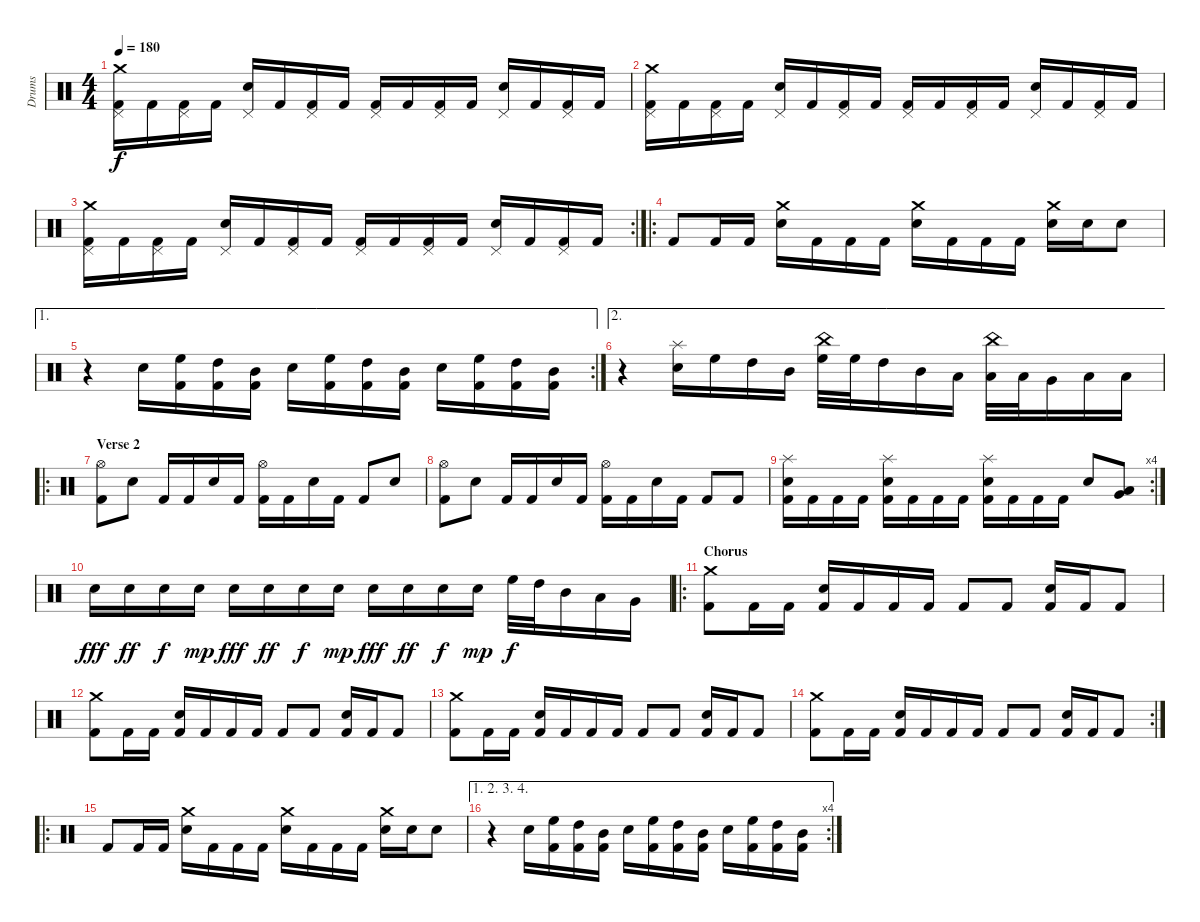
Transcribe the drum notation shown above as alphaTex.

\track ("Drums" "Drums") {instrument percussion}
\staff {score}
\articulation defaults
\ts (4 4)
\tempo 180
\clef neutral
\ks c
("Crash medium (hit)" "Pedal Hi-Hat (hit)" "Kick (hit) 2").16{dy f} "Kick (hit) 2".16 ("Pedal Hi-Hat (hit)" "Kick (hit) 2").16 "Kick (hit) 2".16 ("Pedal Hi-Hat (hit)" "Electric Snare (hit)").16 "Kick (hit) 2".16 ("Pedal Hi-Hat (hit)" "Kick (hit) 2").16 "Kick (hit) 2".16 ("Pedal Hi-Hat (hit)" "Kick (hit) 2").16 "Kick (hit) 2".16 ("Pedal Hi-Hat (hit)" "Kick (hit) 2").16 "Kick (hit) 2".16 ("Pedal Hi-Hat (hit)" "Electric Snare (hit)").16 "Kick (hit) 2".16 ("Pedal Hi-Hat (hit)" "Kick (hit) 2").16 "Kick (hit) 2".16 |
("Crash medium (hit)" "Pedal Hi-Hat (hit)" "Kick (hit) 2").16 "Kick (hit) 2".16 ("Pedal Hi-Hat (hit)" "Kick (hit) 2").16 "Kick (hit) 2".16 ("Pedal Hi-Hat (hit)" "Electric Snare (hit)").16 "Kick (hit) 2".16 ("Pedal Hi-Hat (hit)" "Kick (hit) 2").16 "Kick (hit) 2".16 ("Pedal Hi-Hat (hit)" "Kick (hit) 2").16 "Kick (hit) 2".16 ("Pedal Hi-Hat (hit)" "Kick (hit) 2").16 "Kick (hit) 2".16 ("Pedal Hi-Hat (hit)" "Electric Snare (hit)").16 "Kick (hit) 2".16 ("Pedal Hi-Hat (hit)" "Kick (hit) 2").16 "Kick (hit) 2".16 |
\rc 2
("Crash medium (hit)" "Pedal Hi-Hat (hit)" "Kick (hit) 2").16 "Kick (hit) 2".16 ("Pedal Hi-Hat (hit)" "Kick (hit) 2").16 "Kick (hit) 2".16 ("Pedal Hi-Hat (hit)" "Electric Snare (hit)").16 "Kick (hit) 2".16 ("Pedal Hi-Hat (hit)" "Kick (hit) 2").16 "Kick (hit) 2".16 ("Pedal Hi-Hat (hit)" "Kick (hit) 2").16 "Kick (hit) 2".16 ("Pedal Hi-Hat (hit)" "Kick (hit) 2").16 "Kick (hit) 2".16 ("Pedal Hi-Hat (hit)" "Electric Snare (hit)").16 "Kick (hit) 2".16 ("Pedal Hi-Hat (hit)" "Kick (hit) 2").16 "Kick (hit) 2".16 |
\ro "Kick (hit) 2".8 "Kick (hit) 2".16 "Kick (hit) 2".16
("Crash medium (hit)" "Electric Snare (hit)").16 "Kick (hit) 2".16 "Kick (hit) 2".16 "Kick (hit) 2".16 ("Crash medium (hit)" "Electric Snare (hit)").16 "Kick (hit) 2".16 "Kick (hit) 2".16 "Kick (hit) 2".16 ("Crash medium (hit)" "Electric Snare (hit)").16 "Electric Snare (hit)".16 "Electric Snare (hit)".8 |
\ae 1
\rc 2
r.4 "Electric Snare (hit)".16 ("High Floor Tom (hit)" "Kick (hit) 2").16 ("High Tom (hit)" "Kick (hit) 2").16 ("Mid Tom (hit)" "Kick (hit) 2").16 "Electric Snare (hit)".16 ("High Floor Tom (hit)" "Kick (hit) 2").16 ("High Tom (hit)" "Kick (hit) 2").16 ("Mid Tom (hit)" "Kick (hit) 2").16 "Electric Snare (hit)".16 ("High Floor Tom (hit)" "Kick (hit) 2").16 ("High Tom (hit)" "Kick (hit) 2").16 ("Mid Tom (hit)" "Kick (hit) 2").16 |
\ae 2
r.4 ("Splash (hit)" "Electric Snare (hit)").16 "High Floor Tom (hit)".16 "High Tom (hit)".16 "Mid Tom (hit)".16 ("China (hit)" "High Floor Tom (hit)").32 "High Floor Tom (hit)".32 "High Tom (hit)".16 "Mid Tom (hit)".16 "Low Tom (hit)".16 ("China (hit)" "Low Tom (hit)").32 "Low Tom (hit)".32 "Very Low Tom (hit)".16 "Low Floor Tom (hit)".16 "Low Floor Tom (hit)".16 |
\ro
\section ("" "Verse 2")
("Hi-Hat (open)" "Kick (hit) 2").8 "Electric Snare (hit)".8 "Kick (hit) 2".16 "Kick (hit) 2".16 "Electric Snare (hit)".16 "Kick (hit) 2".16 ("Hi-Hat (open)" "Kick (hit) 2").16 "Kick (hit) 2".16 "Electric Snare (hit)".16 "Kick (hit) 2".16 "Kick (hit) 2".8 "Electric Snare (hit)".8 |
("Hi-Hat (open)" "Kick (hit) 2").8 "Electric Snare (hit)".8 "Kick (hit) 2".16 "Kick (hit) 2".16 "Electric Snare (hit)".16 "Kick (hit) 2".16 ("Hi-Hat (open)" "Kick (hit) 2").16 "Kick (hit) 2".16 "Electric Snare (hit)".16 "Kick (hit) 2".16 "Kick (hit) 2".8 "Kick (hit) 2".8 |
\rc 4
("Electric Snare (hit)" "Kick (hit) 2" "Splash (hit)").16 "Kick (hit) 2".16 "Kick (hit) 2".16 "Kick (hit) 2".16 ("Electric Snare (hit)" "Kick (hit) 2" "Splash (hit)").16 "Kick (hit) 2".16 "Kick (hit) 2".16 "Kick (hit) 2".16 ("Electric Snare (hit)" "Kick (hit) 2" "Splash (hit)").16 "Kick (hit) 2".16 "Kick (hit) 2".16 "Kick (hit) 2".16 "Electric Snare (hit)".8 ("Low Tom (hit)" "Very Low Tom (hit)").8 |
"Electric Snare (hit)".16{dy fff} "Electric Snare (hit)".16{dy ff} "Electric Snare (hit)".16{dy f} "Electric Snare (hit)".16{dy mp} "Electric Snare (hit)".16{dy fff} "Electric Snare (hit)".16{dy ff} "Electric Snare (hit)".16{dy f} "Electric Snare (hit)".16{dy mp} "Electric Snare (hit)".16{dy fff} "Electric Snare (hit)".16{dy ff} "Electric Snare (hit)".16{dy f} "Electric Snare (hit)".16{dy mp} "High Floor Tom (hit)".32{dy f} "High Tom (hit)".32 "Mid Tom (hit)".16 "Low Tom (hit)".16 "Very Low Tom (hit)".16 |
\ro
\section ("" "Chorus")
("Kick (hit) 2" "Crash medium (hit)").8 "Kick (hit) 2".16 "Kick (hit) 2".16 ("Kick (hit) 2" "Electric Snare (hit)").16 "Kick (hit) 2".16 "Kick (hit) 2".16 "Kick (hit) 2".16 "Kick (hit) 2".8 "Kick (hit) 2".8 ("Kick (hit) 2" "Electric Snare (hit)").16 "Kick (hit) 2".16 "Kick (hit) 2".8 |
("Kick (hit) 2" "Crash medium (hit)").8 "Kick (hit) 2".16 "Kick (hit) 2".16 ("Kick (hit) 2" "Electric Snare (hit)").16 "Kick (hit) 2".16 "Kick (hit) 2".16 "Kick (hit) 2".16 "Kick (hit) 2".8 "Kick (hit) 2".8 ("Kick (hit) 2" "Electric Snare (hit)").16 "Kick (hit) 2".16 "Kick (hit) 2".8 |
("Kick (hit) 2" "Crash medium (hit)").8 "Kick (hit) 2".16 "Kick (hit) 2".16 ("Kick (hit) 2" "Electric Snare (hit)").16 "Kick (hit) 2".16 "Kick (hit) 2".16 "Kick (hit) 2".16 "Kick (hit) 2".8 "Kick (hit) 2".8 ("Kick (hit) 2" "Electric Snare (hit)").16 "Kick (hit) 2".16 "Kick (hit) 2".8 |
\rc 2
("Kick (hit) 2" "Crash medium (hit)").8 "Kick (hit) 2".16 "Kick (hit) 2".16 ("Kick (hit) 2" "Electric Snare (hit)").16 "Kick (hit) 2".16 "Kick (hit) 2".16 "Kick (hit) 2".16 "Kick (hit) 2".8 "Kick (hit) 2".8 ("Kick (hit) 2" "Electric Snare (hit)").16 "Kick (hit) 2".16 "Kick (hit) 2".8 |
\ro "Kick (hit) 2".8 "Kick (hit) 2".16 "Kick (hit) 2".16
("Crash medium (hit)" "Electric Snare (hit)").16 "Kick (hit) 2".16 "Kick (hit) 2".16 "Kick (hit) 2".16 ("Crash medium (hit)" "Electric Snare (hit)").16 "Kick (hit) 2".16 "Kick (hit) 2".16 "Kick (hit) 2".16 ("Crash medium (hit)" "Electric Snare (hit)").16 "Electric Snare (hit)".16 "Electric Snare (hit)".8 |
\ae (1 2 3 4)
\rc 4
r.4 "Electric Snare (hit)".16 ("High Floor Tom (hit)" "Kick (hit) 2").16 ("High Tom (hit)" "Kick (hit) 2").16 ("Mid Tom (hit)" "Kick (hit) 2").16 "Electric Snare (hit)".16 ("High Floor Tom (hit)" "Kick (hit) 2").16 ("High Tom (hit)" "Kick (hit) 2").16 ("Mid Tom (hit)" "Kick (hit) 2").16 "Electric Snare (hit)".16 ("High Floor Tom (hit)" "Kick (hit) 2").16 ("High Tom (hit)" "Kick (hit) 2").16 ("Mid Tom (hit)" "Kick (hit) 2").16
